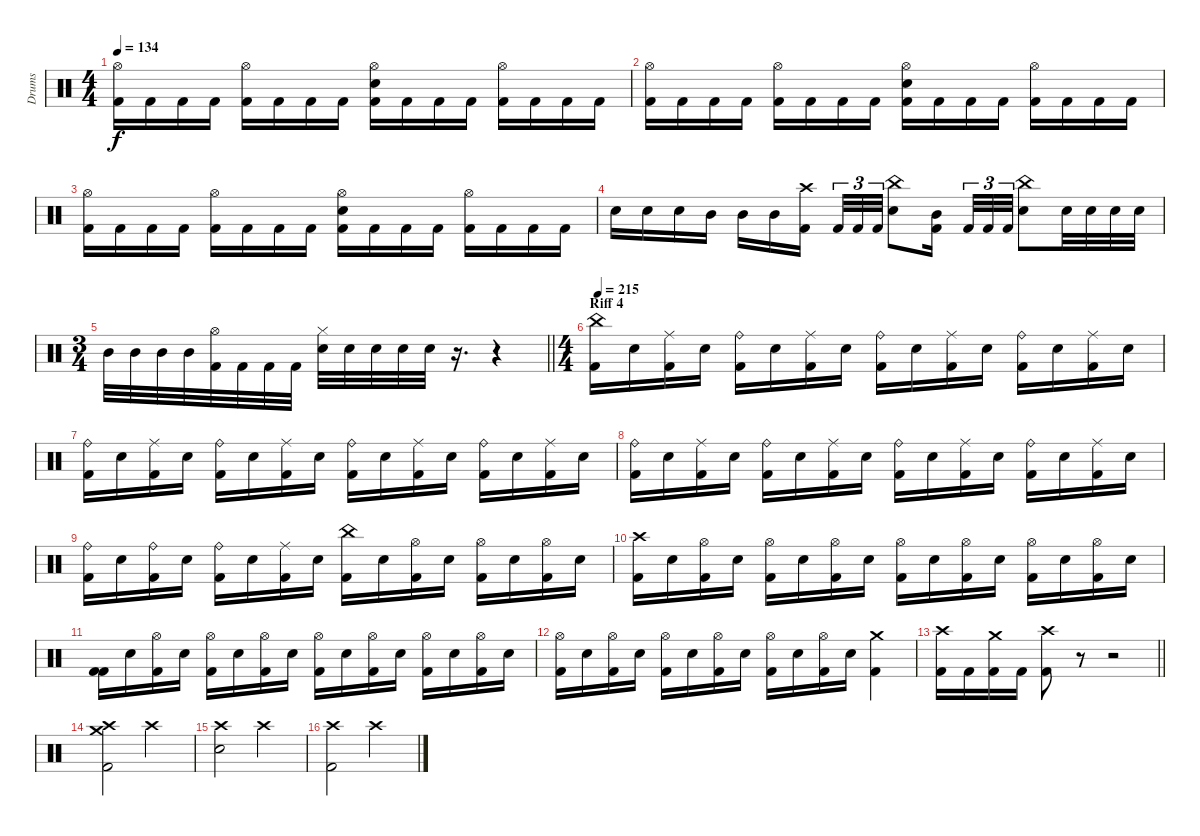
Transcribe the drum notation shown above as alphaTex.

\track ("Drums" "Drums") {instrument percussion}
\staff {score}
\articulation defaults
\ts (4 4)
\tempo 134
\clef neutral
\ks c
("Hi-Hat (open)" "Kick (hit) 2").16{dy f} "Kick (hit) 2".16 "Kick (hit) 2".16 "Kick (hit) 2".16 ("Hi-Hat (open)" "Kick (hit) 2").16 "Kick (hit) 2".16 "Kick (hit) 2".16 "Kick (hit) 2".16 ("Hi-Hat (open)" "Electric Snare (hit)" "Kick (hit) 2").16 "Kick (hit) 2".16 "Kick (hit) 2".16 "Kick (hit) 2".16 ("Hi-Hat (open)" "Kick (hit) 2").16 "Kick (hit) 2".16 "Kick (hit) 2".16 "Kick (hit) 2".16 |
("Hi-Hat (open)" "Kick (hit) 2").16 "Kick (hit) 2".16 "Kick (hit) 2".16 "Kick (hit) 2".16 ("Hi-Hat (open)" "Kick (hit) 2").16 "Kick (hit) 2".16 "Kick (hit) 2".16 "Kick (hit) 2".16 ("Hi-Hat (open)" "Electric Snare (hit)" "Kick (hit) 2").16 "Kick (hit) 2".16 "Kick (hit) 2".16 "Kick (hit) 2".16 ("Hi-Hat (open)" "Kick (hit) 2").16 "Kick (hit) 2".16 "Kick (hit) 2".16 "Kick (hit) 2".16 |
("Hi-Hat (open)" "Kick (hit) 2").16 "Kick (hit) 2".16 "Kick (hit) 2".16 "Kick (hit) 2".16 ("Hi-Hat (open)" "Kick (hit) 2").16 "Kick (hit) 2".16 "Kick (hit) 2".16 "Kick (hit) 2".16 ("Hi-Hat (open)" "Electric Snare (hit)" "Kick (hit) 2").16 "Kick (hit) 2".16 "Kick (hit) 2".16 "Kick (hit) 2".16 ("Hi-Hat (open)" "Kick (hit) 2").16 "Kick (hit) 2".16 "Kick (hit) 2".16 "Kick (hit) 2".16 |
"Electric Snare (hit)".16 "Electric Snare (hit)".16 "Electric Snare (hit)".16 "Mid Tom (hit)".16 "Mid Tom (hit)".16 "Mid Tom (hit)".16 ("Crash high (hit)" "Kick (hit) 2").16 "Kick (hit) 2".32{tu (3 2)} "Kick (hit) 2".32{tu (3 2)} "Kick (hit) 2".32{tu (3 2)} ("China (hit)" "Electric Snare (hit)").8 ("Mid Tom (hit)" "Kick (hit) 2").16 "Kick (hit) 2".32{tu (3 2)} "Kick (hit) 2".32{tu (3 2)} "Kick (hit) 2".32{tu (3 2)} ("China (hit)" "Electric Snare (hit)").8 "Electric Snare (hit)".32 "Electric Snare (hit)".32 "Electric Snare (hit)".32 "Electric Snare (hit)".32 |
\ts (3 4)
\barLineRight lightlight "Mid Tom (hit)".32 "Mid Tom (hit)".32 "Mid Tom (hit)".32 "Mid Tom (hit)".32
("Hi-Hat (open)" "Kick (hit) 2").32 "Kick (hit) 2".32 "Kick (hit) 2".32 "Kick (hit) 2".32 ("Hi-Hat (closed)" "Electric Snare (hit)").32 "Electric Snare (hit)".32 "Electric Snare (hit)".32 "Electric Snare (hit)".32 "Electric Snare (hit)".32 r.16{d} r.4 |
\ts (4 4)
\section ("" "Riff 4")
\tempo 215
("China (hit)" "Kick (hit) 2").16 "Electric Snare (hit)".16 ("Ride (middle)" "Kick (hit) 2").16 "Electric Snare (hit)".16 ("Ride (bell)" "Kick (hit) 2").16 "Electric Snare (hit)".16 ("Ride (middle)" "Kick (hit) 2").16 "Electric Snare (hit)".16 ("Ride (bell)" "Kick (hit) 2").16 "Electric Snare (hit)".16 ("Ride (middle)" "Kick (hit) 2").16 "Electric Snare (hit)".16 ("Ride (bell)" "Kick (hit) 2").16 "Electric Snare (hit)".16 ("Ride (middle)" "Kick (hit) 2").16 "Electric Snare (hit)".16 |
("Ride (bell)" "Kick (hit) 2").16 "Electric Snare (hit)".16 ("Ride (middle)" "Kick (hit) 2").16 "Electric Snare (hit)".16 ("Ride (bell)" "Kick (hit) 2").16 "Electric Snare (hit)".16 ("Ride (middle)" "Kick (hit) 2").16 "Electric Snare (hit)".16 ("Ride (bell)" "Kick (hit) 2").16 "Electric Snare (hit)".16 ("Ride (middle)" "Kick (hit) 2").16 "Electric Snare (hit)".16 ("Ride (bell)" "Kick (hit) 2").16 "Electric Snare (hit)".16 ("Ride (middle)" "Kick (hit) 2").16 "Electric Snare (hit)".16 |
("Ride (bell)" "Kick (hit) 2").16 "Electric Snare (hit)".16 ("Ride (middle)" "Kick (hit) 2").16 "Electric Snare (hit)".16 ("Ride (bell)" "Kick (hit) 2").16 "Electric Snare (hit)".16 ("Ride (middle)" "Kick (hit) 2").16 "Electric Snare (hit)".16 ("Ride (bell)" "Kick (hit) 2").16 "Electric Snare (hit)".16 ("Ride (middle)" "Kick (hit) 2").16 "Electric Snare (hit)".16 ("Ride (bell)" "Kick (hit) 2").16 "Electric Snare (hit)".16 ("Ride (middle)" "Kick (hit) 2").16 "Electric Snare (hit)".16 |
("Ride (bell)" "Kick (hit) 2").16 "Electric Snare (hit)".16 ("Ride (bell)" "Kick (hit) 2").16 "Electric Snare (hit)".16 ("Ride (bell)" "Kick (hit) 2").16 "Electric Snare (hit)".16 ("Ride (middle)" "Kick (hit) 2").16 "Electric Snare (hit)".16 ("China (hit)" "Kick (hit) 2").16 "Electric Snare (hit)".16 ("Hi-Hat (open)" "Kick (hit) 2").16 "Electric Snare (hit)".16 ("Hi-Hat (open)" "Kick (hit) 2").16 "Electric Snare (hit)".16 ("Hi-Hat (open)" "Kick (hit) 2").16 "Electric Snare (hit)".16 |
("Crash high (hit)" "Kick (hit) 2").16 "Electric Snare (hit)".16 ("Hi-Hat (open)" "Kick (hit) 2").16 "Electric Snare (hit)".16 ("Hi-Hat (open)" "Kick (hit) 2").16 "Electric Snare (hit)".16 ("Hi-Hat (open)" "Kick (hit) 2").16 "Electric Snare (hit)".16 ("Hi-Hat (open)" "Kick (hit) 2").16 "Electric Snare (hit)".16 ("Hi-Hat (open)" "Kick (hit) 2").16 "Electric Snare (hit)".16 ("Hi-Hat (open)" "Kick (hit) 2").16 "Electric Snare (hit)".16 ("Hi-Hat (open)" "Kick (hit) 2").16 "Electric Snare (hit)".16 |
("Kick (hit) 2" "Kick (hit) 2").16 "Electric Snare (hit)".16 ("Hi-Hat (open)" "Kick (hit) 2").16 "Electric Snare (hit)".16 ("Hi-Hat (open)" "Kick (hit) 2").16 "Electric Snare (hit)".16 ("Hi-Hat (open)" "Kick (hit) 2").16 "Electric Snare (hit)".16 ("Hi-Hat (open)" "Kick (hit) 2").16 "Electric Snare (hit)".16 ("Hi-Hat (open)" "Kick (hit) 2").16 "Electric Snare (hit)".16 ("Hi-Hat (open)" "Kick (hit) 2").16 "Electric Snare (hit)".16 ("Hi-Hat (open)" "Kick (hit) 2").16 "Electric Snare (hit)".16 |
("Hi-Hat (open)" "Kick (hit) 2").16 "Electric Snare (hit)".16 ("Hi-Hat (open)" "Kick (hit) 2").16 "Electric Snare (hit)".16 ("Hi-Hat (open)" "Kick (hit) 2").16 "Electric Snare (hit)".16 ("Hi-Hat (open)" "Kick (hit) 2").16 "Electric Snare (hit)".16 ("Hi-Hat (open)" "Kick (hit) 2").16 "Electric Snare (hit)".16 ("Hi-Hat (open)" "Kick (hit) 2").16 "Electric Snare (hit)".16 ("Crash medium (hit)" "Kick (hit) 2").4 |
\barLineRight lightlight
("Crash high (hit)" "Kick (hit) 2").16 "Kick (hit) 2".16 ("Crash medium (hit)" "Kick (hit) 2").16 "Kick (hit) 2".16 ("Crash high (hit)" "Kick (hit) 2").8 r.8{volume 0} r.2 |
("Crash medium (hit)" "Crash high (hit)" "Kick (hit) 2").2{volume 13} "Crash high (hit)".2 |
("Crash high (hit)" "Electric Snare (hit)").2 "Crash high (hit)".2 |
("Crash high (hit)" "Kick (hit) 2").2 "Crash high (hit)".2
